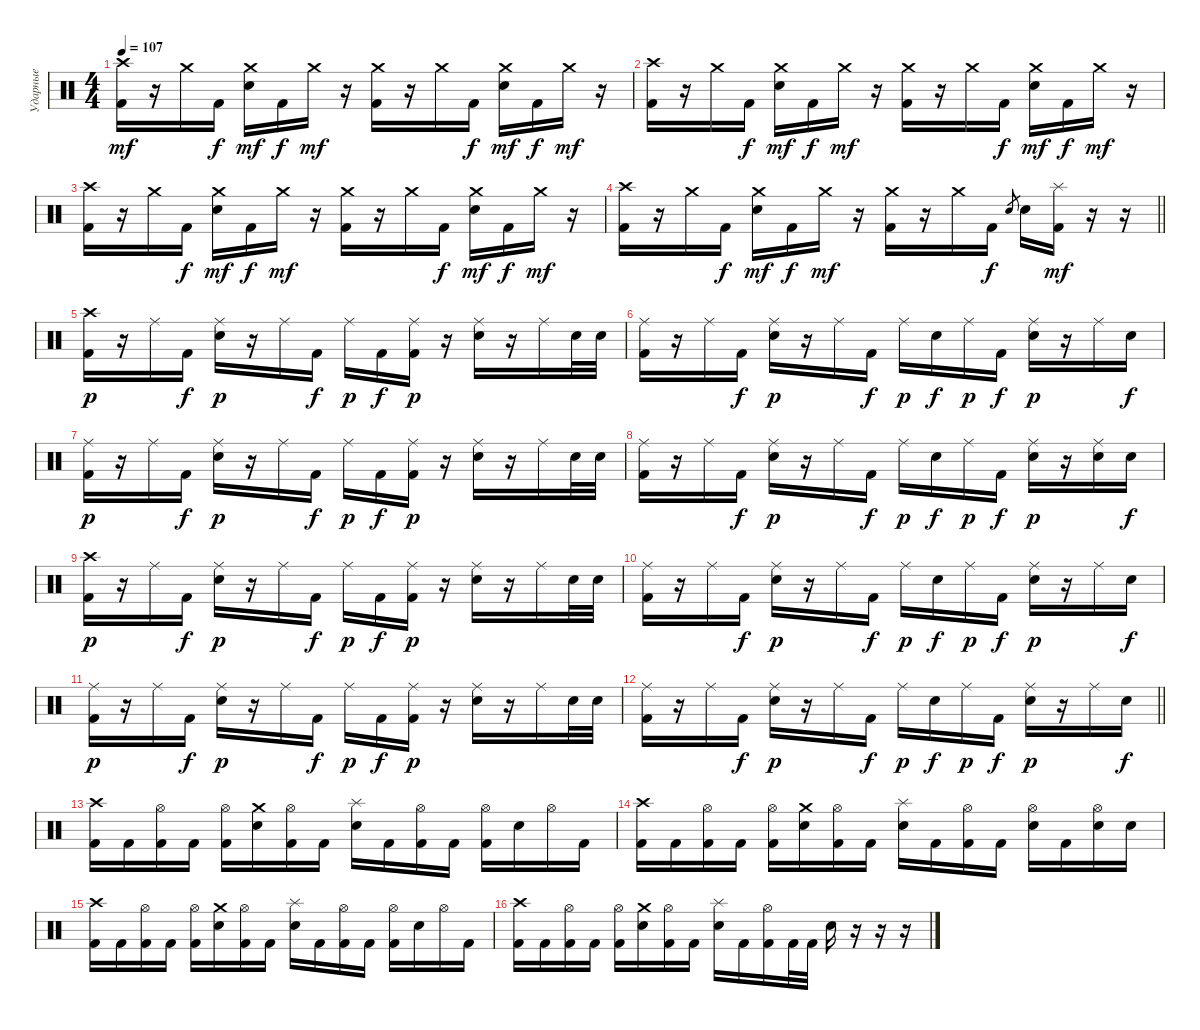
\track ("Ударные" "Ударные") {instrument percussion}
\staff {score}
\articulation defaults
\ts (4 4)
\tempo 107
\clef neutral
\ks c
("Kick (hit) 2" "Crash high (hit)").16{dy mf volume 16} r.16 "Crash medium (hit)".16 "Kick (hit) 2".16{dy f} ("Electric Snare (hit)" "Crash medium (hit)").16{dy mf} "Kick (hit) 2".16{dy f} "Crash medium (hit)".16{dy mf} r.16 ("Kick (hit) 2" "Crash medium (hit)").16 r.16 "Crash medium (hit)".16 "Kick (hit) 2".16{dy f} ("Electric Snare (hit)" "Crash medium (hit)").16{dy mf} "Kick (hit) 2".16{dy f} "Crash medium (hit)".16{dy mf} r.16 |
("Kick (hit) 2" "Crash high (hit)").16{volume 16} r.16 "Crash medium (hit)".16 "Kick (hit) 2".16{dy f} ("Electric Snare (hit)" "Crash medium (hit)").16{dy mf} "Kick (hit) 2".16{dy f} "Crash medium (hit)".16{dy mf} r.16 ("Kick (hit) 2" "Crash medium (hit)").16 r.16 "Crash medium (hit)".16 "Kick (hit) 2".16{dy f} ("Electric Snare (hit)" "Crash medium (hit)").16{dy mf} "Kick (hit) 2".16{dy f} "Crash medium (hit)".16{dy mf} r.16 |
("Kick (hit) 2" "Crash high (hit)").16{volume 16} r.16 "Crash medium (hit)".16 "Kick (hit) 2".16{dy f} ("Electric Snare (hit)" "Crash medium (hit)").16{dy mf} "Kick (hit) 2".16{dy f} "Crash medium (hit)".16{dy mf} r.16 ("Kick (hit) 2" "Crash medium (hit)").16 r.16 "Crash medium (hit)".16 "Kick (hit) 2".16{dy f} ("Electric Snare (hit)" "Crash medium (hit)").16{dy mf} "Kick (hit) 2".16{dy f} "Crash medium (hit)".16{dy mf} r.16 |
\barLineRight lightlight
("Kick (hit) 2" "Crash high (hit)").16{volume 16} r.16 "Crash medium (hit)".16 "Kick (hit) 2".16{dy f} ("Electric Snare (hit)" "Crash medium (hit)").16{dy mf} "Kick (hit) 2".16{dy f} "Crash medium (hit)".16{dy mf} r.16 ("Kick (hit) 2" "Crash medium (hit)").16 r.16 "Crash medium (hit)".16 "Kick (hit) 2".16{dy f} "Electric Snare (hit)".8{gr} "Electric Snare (hit)".16 ("Kick (hit) 2" "Splash (hit)").16{dy mf} r.16 r.16 |
\section ("" "")
("Kick (hit) 2" "Crash high (hit)").16{dy p volume 16} r.16 "Ride (middle)".16 "Kick (hit) 2".16{dy f} ("Electric Snare (hit)" "Ride (middle)").16{dy p} r.16 "Ride (middle)".16 "Kick (hit) 2".16{dy f} "Ride (middle)".16{dy p} "Kick (hit) 2".16{dy f} ("Kick (hit) 2" "Ride (middle)").16{dy p} r.16 ("Electric Snare (hit)" "Ride (middle)").16 r.16 "Ride (middle)".16 "Electric Snare (hit)".32 "Electric Snare (hit)".32 |
("Kick (hit) 2" "Ride (middle)").16 r.16 "Ride (middle)".16 "Kick (hit) 2".16{dy f} ("Electric Snare (hit)" "Ride (middle)").16{dy p} r.16 "Ride (middle)".16 "Kick (hit) 2".16{dy f} "Ride (middle)".16{dy p} "Electric Snare (hit)".16{dy f} "Ride (middle)".16{dy p} "Kick (hit) 2".16{dy f} ("Electric Snare (hit)" "Ride (middle)").16{dy p} r.16 "Ride (middle)".16 "Electric Snare (hit)".16{dy f} |
("Kick (hit) 2" "Ride (middle)").16{dy p} r.16 "Ride (middle)".16 "Kick (hit) 2".16{dy f} ("Electric Snare (hit)" "Ride (middle)").16{dy p} r.16 "Ride (middle)".16 "Kick (hit) 2".16{dy f} "Ride (middle)".16{dy p} "Kick (hit) 2".16{dy f} ("Kick (hit) 2" "Ride (middle)").16{dy p} r.16 ("Electric Snare (hit)" "Ride (middle)").16 r.16 "Ride (middle)".16 "Electric Snare (hit)".32 "Electric Snare (hit)".32 |
("Kick (hit) 2" "Ride (middle)").16 r.16 "Ride (middle)".16 "Kick (hit) 2".16{dy f} ("Electric Snare (hit)" "Ride (middle)").16{dy p} r.16 "Ride (middle)".16 "Kick (hit) 2".16{dy f} "Ride (middle)".16{dy p} "Electric Snare (hit)".16{dy f} "Ride (middle)".16{dy p} "Kick (hit) 2".16{dy f} ("Electric Snare (hit)" "Ride (middle)").16{dy p} r.16 ("Ride (middle)" "Electric Snare (hit)").16 "Electric Snare (hit)".16{dy f} |
("Kick (hit) 2" "Crash high (hit)").16{dy p volume 16} r.16 "Ride (middle)".16 "Kick (hit) 2".16{dy f} ("Electric Snare (hit)" "Ride (middle)").16{dy p} r.16 "Ride (middle)".16 "Kick (hit) 2".16{dy f} "Ride (middle)".16{dy p} "Kick (hit) 2".16{dy f} ("Kick (hit) 2" "Ride (middle)").16{dy p} r.16 ("Electric Snare (hit)" "Ride (middle)").16 r.16 "Ride (middle)".16 "Electric Snare (hit)".32 "Electric Snare (hit)".32 |
("Kick (hit) 2" "Ride (middle)").16 r.16 "Ride (middle)".16 "Kick (hit) 2".16{dy f} ("Electric Snare (hit)" "Ride (middle)").16{dy p} r.16 "Ride (middle)".16 "Kick (hit) 2".16{dy f} "Ride (middle)".16{dy p} "Electric Snare (hit)".16{dy f} "Ride (middle)".16{dy p} "Kick (hit) 2".16{dy f} ("Electric Snare (hit)" "Ride (middle)").16{dy p} r.16 "Ride (middle)".16 "Electric Snare (hit)".16{dy f} |
("Kick (hit) 2" "Ride (middle)").16{dy p volume 16} r.16 "Ride (middle)".16 "Kick (hit) 2".16{dy f} ("Electric Snare (hit)" "Ride (middle)").16{dy p} r.16 "Ride (middle)".16 "Kick (hit) 2".16{dy f} "Ride (middle)".16{dy p} "Kick (hit) 2".16{dy f} ("Kick (hit) 2" "Ride (middle)").16{dy p} r.16 ("Electric Snare (hit)" "Ride (middle)").16 r.16 "Ride (middle)".16 "Electric Snare (hit)".32 "Electric Snare (hit)".32 |
\barLineRight lightlight
("Kick (hit) 2" "Ride (middle)").16 r.16 "Ride (middle)".16 "Kick (hit) 2".16{dy f} ("Electric Snare (hit)" "Ride (middle)").16{dy p} r.16 "Ride (middle)".16 "Kick (hit) 2".16{dy f} "Ride (middle)".16{dy p} "Electric Snare (hit)".16{dy f} "Ride (middle)".16{dy p} "Kick (hit) 2".16{dy f} ("Electric Snare (hit)" "Ride (middle)").16{dy p} r.16 "Ride (middle)".16 "Electric Snare (hit)".16{dy f} |
\section ("" "")
("Kick (hit) 2" "Crash high (hit)").16 "Kick (hit) 2".16 ("Kick (hit) 2" "Hi-Hat (open)").16 "Kick (hit) 2".16 ("Kick (hit) 2" "Hi-Hat (open)").16 ("Electric Snare (hit)" "Crash medium (hit)").16 ("Kick (hit) 2" "Hi-Hat (open)").16 "Kick (hit) 2".16 ("Electric Snare (hit)" "Splash (hit)").16 "Kick (hit) 2".16 ("Kick (hit) 2" "Hi-Hat (open)").16 "Kick (hit) 2".16 ("Kick (hit) 2" "Hi-Hat (open)").16 "Electric Snare (hit)".16 "Hi-Hat (open)".16 "Kick (hit) 2".16 |
("Kick (hit) 2" "Crash high (hit)").16 "Kick (hit) 2".16 ("Kick (hit) 2" "Hi-Hat (open)").16 "Kick (hit) 2".16 ("Kick (hit) 2" "Hi-Hat (open)").16 ("Electric Snare (hit)" "Crash medium (hit)").16 ("Kick (hit) 2" "Hi-Hat (open)").16 "Kick (hit) 2".16 ("Electric Snare (hit)" "Splash (hit)").16 "Kick (hit) 2".16 ("Kick (hit) 2" "Hi-Hat (open)").16 "Kick (hit) 2".16 ("Electric Snare (hit)" "Hi-Hat (open)").16 "Kick (hit) 2".16 ("Electric Snare (hit)" "Hi-Hat (open)").16 "Electric Snare (hit)".16 |
("Kick (hit) 2" "Crash high (hit)").16 "Kick (hit) 2".16 ("Kick (hit) 2" "Hi-Hat (open)").16 "Kick (hit) 2".16 ("Kick (hit) 2" "Hi-Hat (open)").16 ("Electric Snare (hit)" "Crash medium (hit)").16 ("Kick (hit) 2" "Hi-Hat (open)").16 "Kick (hit) 2".16 ("Electric Snare (hit)" "Splash (hit)").16 "Kick (hit) 2".16 ("Kick (hit) 2" "Hi-Hat (open)").16 "Kick (hit) 2".16 ("Kick (hit) 2" "Hi-Hat (open)").16 "Electric Snare (hit)".16 "Hi-Hat (open)".16 "Kick (hit) 2".16 |
("Kick (hit) 2" "Crash high (hit)").16 "Kick (hit) 2".16 ("Kick (hit) 2" "Hi-Hat (open)").16 "Kick (hit) 2".16 ("Kick (hit) 2" "Hi-Hat (open)").16 ("Electric Snare (hit)" "Crash medium (hit)").16 ("Kick (hit) 2" "Hi-Hat (open)").16 "Kick (hit) 2".16 ("Electric Snare (hit)" "Splash (hit)").16 "Kick (hit) 2".16 ("Kick (hit) 2" "Hi-Hat (open)").16 "Kick (hit) 2".32 "Kick (hit) 2".32 "Electric Snare (hit)".16 r.16 r.16 r.16
